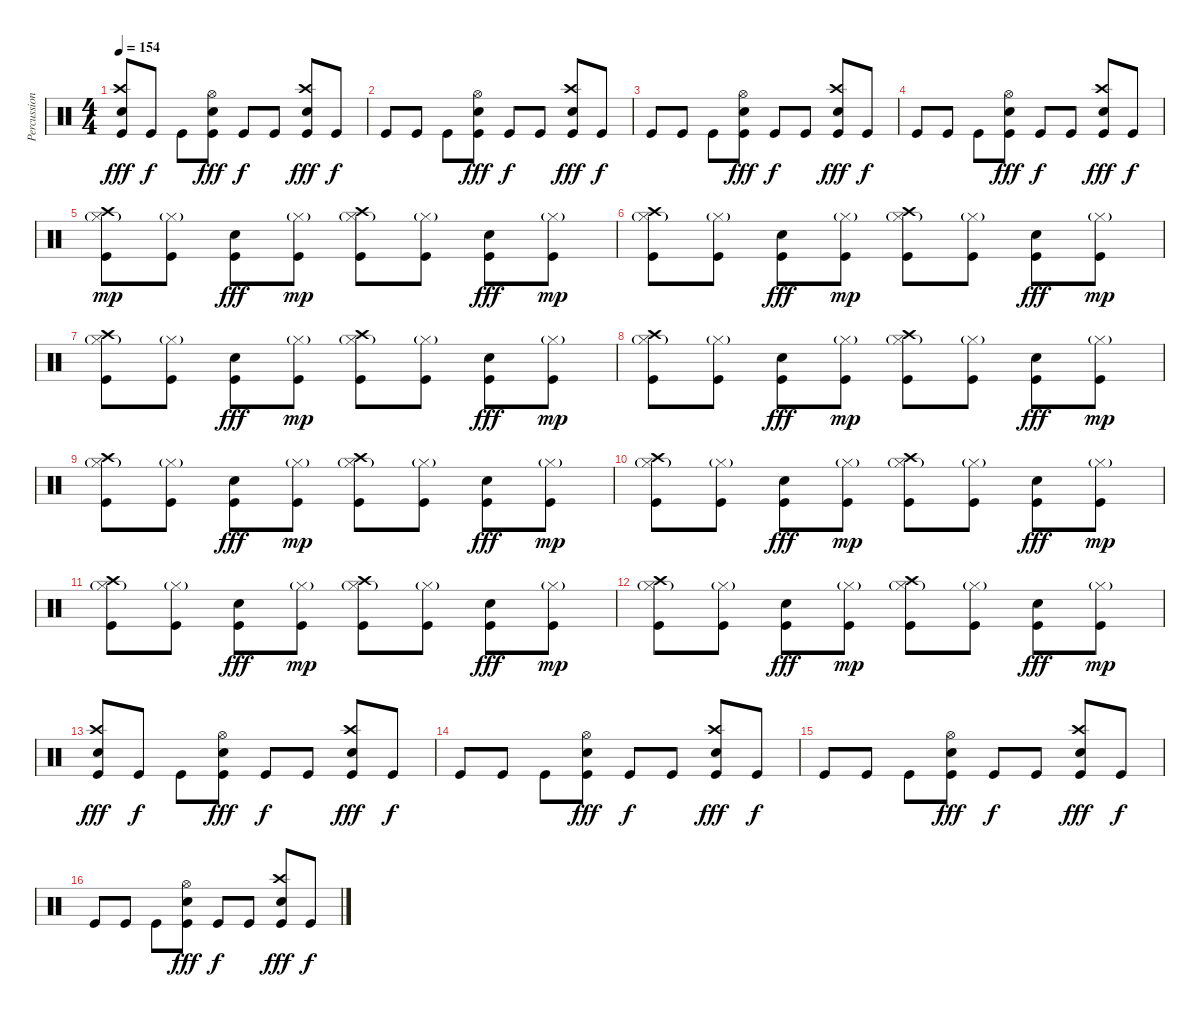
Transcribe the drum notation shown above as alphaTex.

\track ("Percussion" "Percussion") {instrument percussion}
\staff {score}
\articulation defaults
\ts (4 4)
\tempo 154
\clef neutral
\ks c
("Kick (hit)" "Crash high (hit)" "Electric Snare (hit)").8{dy fff} "Kick (hit)".8{dy f} "Kick (hit)".8 ("Kick (hit)" "Electric Snare (hit)" "Hi-Hat (open)").8{dy fff} "Kick (hit)".8{dy f} "Kick (hit)".8 ("Electric Snare (hit)" "Kick (hit)" "Crash high (hit)").8{dy fff} "Kick (hit)".8{dy f} |
"Kick (hit)".8 "Kick (hit)".8 "Kick (hit)".8 ("Kick (hit)" "Electric Snare (hit)" "Hi-Hat (open)").8{dy fff} "Kick (hit)".8{dy f} "Kick (hit)".8 ("Kick (hit)" "Electric Snare (hit)" "Crash high (hit)").8{dy fff} "Kick (hit)".8{dy f} |
"Kick (hit)".8 "Kick (hit)".8 "Kick (hit)".8 ("Kick (hit)" "Electric Snare (hit)" "Hi-Hat (open)").8{dy fff} "Kick (hit)".8{dy f} "Kick (hit)".8 ("Kick (hit)" "Electric Snare (hit)" "Crash high (hit)").8{dy fff} "Kick (hit)".8{dy f} |
"Kick (hit)".8 "Kick (hit)".8 "Kick (hit)".8 ("Kick (hit)" "Electric Snare (hit)" "Hi-Hat (open)").8{dy fff} "Kick (hit)".8{dy f} "Kick (hit)".8 ("Kick (hit)" "Electric Snare (hit)" "Crash high (hit)").8{dy fff} "Kick (hit)".8{dy f} |
("Kick (hit)" "Hi-Hat (closed)"{g} "Crash high (hit)").8{dy mp} ("Kick (hit)" "Hi-Hat (closed)"{g}).8 ("Kick (hit)" "Electric Snare (hit)").8{dy fff} ("Kick (hit)" "Hi-Hat (closed)"{g}).8{dy mp} ("Kick (hit)" "Hi-Hat (closed)"{g} "Crash high (hit)").8 ("Kick (hit)" "Hi-Hat (closed)"{g}).8 ("Kick (hit)" "Electric Snare (hit)").8{dy fff} ("Kick (hit)" "Hi-Hat (closed)"{g}).8{dy mp} |
("Kick (hit)" "Hi-Hat (closed)"{g} "Crash high (hit)").8 ("Kick (hit)" "Hi-Hat (closed)"{g}).8 ("Kick (hit)" "Electric Snare (hit)").8{dy fff} ("Kick (hit)" "Hi-Hat (closed)"{g}).8{dy mp} ("Kick (hit)" "Hi-Hat (closed)"{g} "Crash high (hit)").8 ("Kick (hit)" "Hi-Hat (closed)"{g}).8 ("Kick (hit)" "Electric Snare (hit)").8{dy fff} ("Kick (hit)" "Hi-Hat (closed)"{g}).8{dy mp} |
("Kick (hit)" "Hi-Hat (closed)"{g} "Crash high (hit)").8 ("Kick (hit)" "Hi-Hat (closed)"{g}).8 ("Kick (hit)" "Electric Snare (hit)").8{dy fff} ("Kick (hit)" "Hi-Hat (closed)"{g}).8{dy mp} ("Kick (hit)" "Hi-Hat (closed)"{g} "Crash high (hit)").8 ("Kick (hit)" "Hi-Hat (closed)"{g}).8 ("Kick (hit)" "Electric Snare (hit)").8{dy fff} ("Kick (hit)" "Hi-Hat (closed)"{g}).8{dy mp} |
("Kick (hit)" "Hi-Hat (closed)"{g} "Crash high (hit)").8 ("Kick (hit)" "Hi-Hat (closed)"{g}).8 ("Kick (hit)" "Electric Snare (hit)").8{dy fff} ("Kick (hit)" "Hi-Hat (closed)"{g}).8{dy mp} ("Kick (hit)" "Hi-Hat (closed)"{g} "Crash high (hit)").8 ("Kick (hit)" "Hi-Hat (closed)"{g}).8 ("Kick (hit)" "Electric Snare (hit)").8{dy fff} ("Kick (hit)" "Hi-Hat (closed)"{g}).8{dy mp} |
("Kick (hit)" "Hi-Hat (closed)"{g} "Crash high (hit)").8 ("Kick (hit)" "Hi-Hat (closed)"{g}).8 ("Kick (hit)" "Electric Snare (hit)").8{dy fff} ("Kick (hit)" "Hi-Hat (closed)"{g}).8{dy mp} ("Kick (hit)" "Hi-Hat (closed)"{g} "Crash high (hit)").8 ("Kick (hit)" "Hi-Hat (closed)"{g}).8 ("Kick (hit)" "Electric Snare (hit)").8{dy fff} ("Kick (hit)" "Hi-Hat (closed)"{g}).8{dy mp} |
("Kick (hit)" "Hi-Hat (closed)"{g} "Crash high (hit)").8 ("Kick (hit)" "Hi-Hat (closed)"{g}).8 ("Kick (hit)" "Electric Snare (hit)").8{dy fff} ("Kick (hit)" "Hi-Hat (closed)"{g}).8{dy mp} ("Kick (hit)" "Hi-Hat (closed)"{g} "Crash high (hit)").8 ("Kick (hit)" "Hi-Hat (closed)"{g}).8 ("Kick (hit)" "Electric Snare (hit)").8{dy fff} ("Kick (hit)" "Hi-Hat (closed)"{g}).8{dy mp} |
("Kick (hit)" "Hi-Hat (closed)"{g} "Crash high (hit)").8 ("Kick (hit)" "Hi-Hat (closed)"{g}).8 ("Kick (hit)" "Electric Snare (hit)").8{dy fff} ("Kick (hit)" "Hi-Hat (closed)"{g}).8{dy mp} ("Kick (hit)" "Hi-Hat (closed)"{g} "Crash high (hit)").8 ("Kick (hit)" "Hi-Hat (closed)"{g}).8 ("Kick (hit)" "Electric Snare (hit)").8{dy fff} ("Kick (hit)" "Hi-Hat (closed)"{g}).8{dy mp} |
("Kick (hit)" "Hi-Hat (closed)"{g} "Crash high (hit)").8 ("Kick (hit)" "Hi-Hat (closed)"{g}).8 ("Kick (hit)" "Electric Snare (hit)").8{dy fff} ("Kick (hit)" "Hi-Hat (closed)"{g}).8{dy mp} ("Kick (hit)" "Hi-Hat (closed)"{g} "Crash high (hit)").8 ("Kick (hit)" "Hi-Hat (closed)"{g}).8 ("Kick (hit)" "Electric Snare (hit)").8{dy fff} ("Kick (hit)" "Hi-Hat (closed)"{g}).8{dy mp} |
("Kick (hit)" "Crash high (hit)" "Electric Snare (hit)").8{dy fff} "Kick (hit)".8{dy f} "Kick (hit)".8 ("Kick (hit)" "Electric Snare (hit)" "Hi-Hat (open)").8{dy fff} "Kick (hit)".8{dy f} "Kick (hit)".8 ("Electric Snare (hit)" "Kick (hit)" "Crash high (hit)").8{dy fff} "Kick (hit)".8{dy f} |
"Kick (hit)".8 "Kick (hit)".8 "Kick (hit)".8 ("Kick (hit)" "Electric Snare (hit)" "Hi-Hat (open)").8{dy fff} "Kick (hit)".8{dy f} "Kick (hit)".8 ("Kick (hit)" "Electric Snare (hit)" "Crash high (hit)").8{dy fff} "Kick (hit)".8{dy f} |
"Kick (hit)".8 "Kick (hit)".8 "Kick (hit)".8 ("Kick (hit)" "Electric Snare (hit)" "Hi-Hat (open)").8{dy fff} "Kick (hit)".8{dy f} "Kick (hit)".8 ("Kick (hit)" "Electric Snare (hit)" "Crash high (hit)").8{dy fff} "Kick (hit)".8{dy f} |
"Kick (hit)".8 "Kick (hit)".8 "Kick (hit)".8 ("Kick (hit)" "Electric Snare (hit)" "Hi-Hat (open)").8{dy fff} "Kick (hit)".8{dy f} "Kick (hit)".8 ("Kick (hit)" "Electric Snare (hit)" "Crash high (hit)").8{dy fff} "Kick (hit)".8{dy f}
